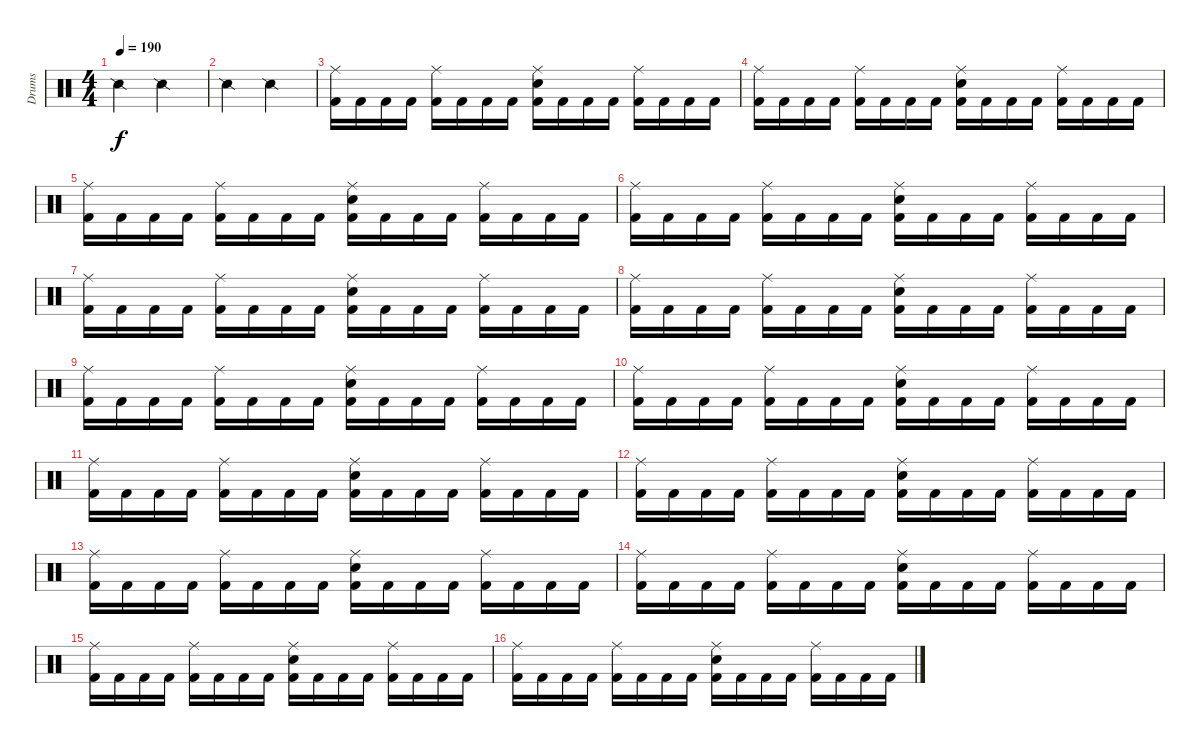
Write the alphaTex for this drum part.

\track ("Drums" "Drums") {instrument percussion}
\staff {score}
\articulation defaults
\ts (4 4)
\tempo 190
\clef neutral
\ks c "Snare (side stick) 2".2{dy f} "Snare (side stick) 2".2
|
"Snare (side stick) 2".2 "Snare (side stick) 2".2 |
("Ride (middle)" "Kick (hit) 2").16 "Kick (hit) 2".16 "Kick (hit) 2".16 "Kick (hit) 2".16 ("Ride (middle)" "Kick (hit) 2").16 "Kick (hit) 2".16 "Kick (hit) 2".16 "Kick (hit) 2".16 ("Ride (middle)" "Snare (hit) 2" "Kick (hit) 2").16 "Kick (hit) 2".16 "Kick (hit) 2".16 "Kick (hit) 2".16 ("Ride (middle)" "Kick (hit) 2").16 "Kick (hit) 2".16 "Kick (hit) 2".16 "Kick (hit) 2".16 |
("Ride (middle)" "Kick (hit) 2").16 "Kick (hit) 2".16 "Kick (hit) 2".16 "Kick (hit) 2".16 ("Ride (middle)" "Kick (hit) 2").16 "Kick (hit) 2".16 "Kick (hit) 2".16 "Kick (hit) 2".16 ("Ride (middle)" "Snare (hit) 2" "Kick (hit) 2").16 "Kick (hit) 2".16 "Kick (hit) 2".16 "Kick (hit) 2".16 ("Ride (middle)" "Kick (hit) 2").16 "Kick (hit) 2".16 "Kick (hit) 2".16 "Kick (hit) 2".16 |
("Ride (middle)" "Kick (hit) 2").16 "Kick (hit) 2".16 "Kick (hit) 2".16 "Kick (hit) 2".16 ("Ride (middle)" "Kick (hit) 2").16 "Kick (hit) 2".16 "Kick (hit) 2".16 "Kick (hit) 2".16 ("Ride (middle)" "Snare (hit) 2" "Kick (hit) 2").16 "Kick (hit) 2".16 "Kick (hit) 2".16 "Kick (hit) 2".16 ("Ride (middle)" "Kick (hit) 2").16 "Kick (hit) 2".16 "Kick (hit) 2".16 "Kick (hit) 2".16 |
("Ride (middle)" "Kick (hit) 2").16 "Kick (hit) 2".16 "Kick (hit) 2".16 "Kick (hit) 2".16 ("Ride (middle)" "Kick (hit) 2").16 "Kick (hit) 2".16 "Kick (hit) 2".16 "Kick (hit) 2".16 ("Ride (middle)" "Snare (hit) 2" "Kick (hit) 2").16 "Kick (hit) 2".16 "Kick (hit) 2".16 "Kick (hit) 2".16 ("Ride (middle)" "Kick (hit) 2").16 "Kick (hit) 2".16 "Kick (hit) 2".16 "Kick (hit) 2".16 |
("Ride (middle)" "Kick (hit) 2").16 "Kick (hit) 2".16 "Kick (hit) 2".16 "Kick (hit) 2".16 ("Ride (middle)" "Kick (hit) 2").16 "Kick (hit) 2".16 "Kick (hit) 2".16 "Kick (hit) 2".16 ("Ride (middle)" "Snare (hit) 2" "Kick (hit) 2").16 "Kick (hit) 2".16 "Kick (hit) 2".16 "Kick (hit) 2".16 ("Ride (middle)" "Kick (hit) 2").16 "Kick (hit) 2".16 "Kick (hit) 2".16 "Kick (hit) 2".16 |
("Ride (middle)" "Kick (hit) 2").16 "Kick (hit) 2".16 "Kick (hit) 2".16 "Kick (hit) 2".16 ("Ride (middle)" "Kick (hit) 2").16 "Kick (hit) 2".16 "Kick (hit) 2".16 "Kick (hit) 2".16 ("Ride (middle)" "Snare (hit) 2" "Kick (hit) 2").16 "Kick (hit) 2".16 "Kick (hit) 2".16 "Kick (hit) 2".16 ("Ride (middle)" "Kick (hit) 2").16 "Kick (hit) 2".16 "Kick (hit) 2".16 "Kick (hit) 2".16 |
("Ride (middle)" "Kick (hit) 2").16 "Kick (hit) 2".16 "Kick (hit) 2".16 "Kick (hit) 2".16 ("Ride (middle)" "Kick (hit) 2").16 "Kick (hit) 2".16 "Kick (hit) 2".16 "Kick (hit) 2".16 ("Ride (middle)" "Snare (hit) 2" "Kick (hit) 2").16 "Kick (hit) 2".16 "Kick (hit) 2".16 "Kick (hit) 2".16 ("Ride (middle)" "Kick (hit) 2").16 "Kick (hit) 2".16 "Kick (hit) 2".16 "Kick (hit) 2".16 |
("Ride (middle)" "Kick (hit) 2").16 "Kick (hit) 2".16 "Kick (hit) 2".16 "Kick (hit) 2".16 ("Ride (middle)" "Kick (hit) 2").16 "Kick (hit) 2".16 "Kick (hit) 2".16 "Kick (hit) 2".16 ("Ride (middle)" "Snare (hit) 2" "Kick (hit) 2").16 "Kick (hit) 2".16 "Kick (hit) 2".16 "Kick (hit) 2".16 ("Ride (middle)" "Kick (hit) 2").16 "Kick (hit) 2".16 "Kick (hit) 2".16 "Kick (hit) 2".16 |
("Ride (middle)" "Kick (hit) 2").16 "Kick (hit) 2".16 "Kick (hit) 2".16 "Kick (hit) 2".16 ("Ride (middle)" "Kick (hit) 2").16 "Kick (hit) 2".16 "Kick (hit) 2".16 "Kick (hit) 2".16 ("Ride (middle)" "Snare (hit) 2" "Kick (hit) 2").16 "Kick (hit) 2".16 "Kick (hit) 2".16 "Kick (hit) 2".16 ("Ride (middle)" "Kick (hit) 2").16 "Kick (hit) 2".16 "Kick (hit) 2".16 "Kick (hit) 2".16 |
("Ride (middle)" "Kick (hit) 2").16 "Kick (hit) 2".16 "Kick (hit) 2".16 "Kick (hit) 2".16 ("Ride (middle)" "Kick (hit) 2").16 "Kick (hit) 2".16 "Kick (hit) 2".16 "Kick (hit) 2".16 ("Ride (middle)" "Snare (hit) 2" "Kick (hit) 2").16 "Kick (hit) 2".16 "Kick (hit) 2".16 "Kick (hit) 2".16 ("Ride (middle)" "Kick (hit) 2").16 "Kick (hit) 2".16 "Kick (hit) 2".16 "Kick (hit) 2".16 |
("Ride (middle)" "Kick (hit) 2").16 "Kick (hit) 2".16 "Kick (hit) 2".16 "Kick (hit) 2".16 ("Ride (middle)" "Kick (hit) 2").16 "Kick (hit) 2".16 "Kick (hit) 2".16 "Kick (hit) 2".16 ("Ride (middle)" "Snare (hit) 2" "Kick (hit) 2").16 "Kick (hit) 2".16 "Kick (hit) 2".16 "Kick (hit) 2".16 ("Ride (middle)" "Kick (hit) 2").16 "Kick (hit) 2".16 "Kick (hit) 2".16 "Kick (hit) 2".16 |
("Ride (middle)" "Kick (hit) 2").16 "Kick (hit) 2".16 "Kick (hit) 2".16 "Kick (hit) 2".16 ("Ride (middle)" "Kick (hit) 2").16 "Kick (hit) 2".16 "Kick (hit) 2".16 "Kick (hit) 2".16 ("Ride (middle)" "Snare (hit) 2" "Kick (hit) 2").16 "Kick (hit) 2".16 "Kick (hit) 2".16 "Kick (hit) 2".16 ("Ride (middle)" "Kick (hit) 2").16 "Kick (hit) 2".16 "Kick (hit) 2".16 "Kick (hit) 2".16 |
("Ride (middle)" "Kick (hit) 2").16 "Kick (hit) 2".16 "Kick (hit) 2".16 "Kick (hit) 2".16 ("Ride (middle)" "Kick (hit) 2").16 "Kick (hit) 2".16 "Kick (hit) 2".16 "Kick (hit) 2".16 ("Ride (middle)" "Snare (hit) 2" "Kick (hit) 2").16 "Kick (hit) 2".16 "Kick (hit) 2".16 "Kick (hit) 2".16 ("Ride (middle)" "Kick (hit) 2").16 "Kick (hit) 2".16 "Kick (hit) 2".16 "Kick (hit) 2".16 |
("Ride (middle)" "Kick (hit) 2").16 "Kick (hit) 2".16 "Kick (hit) 2".16 "Kick (hit) 2".16 ("Ride (middle)" "Kick (hit) 2").16 "Kick (hit) 2".16 "Kick (hit) 2".16 "Kick (hit) 2".16 ("Ride (middle)" "Snare (hit) 2" "Kick (hit) 2").16 "Kick (hit) 2".16 "Kick (hit) 2".16 "Kick (hit) 2".16 ("Ride (middle)" "Kick (hit) 2").16 "Kick (hit) 2".16 "Kick (hit) 2".16 "Kick (hit) 2".16
